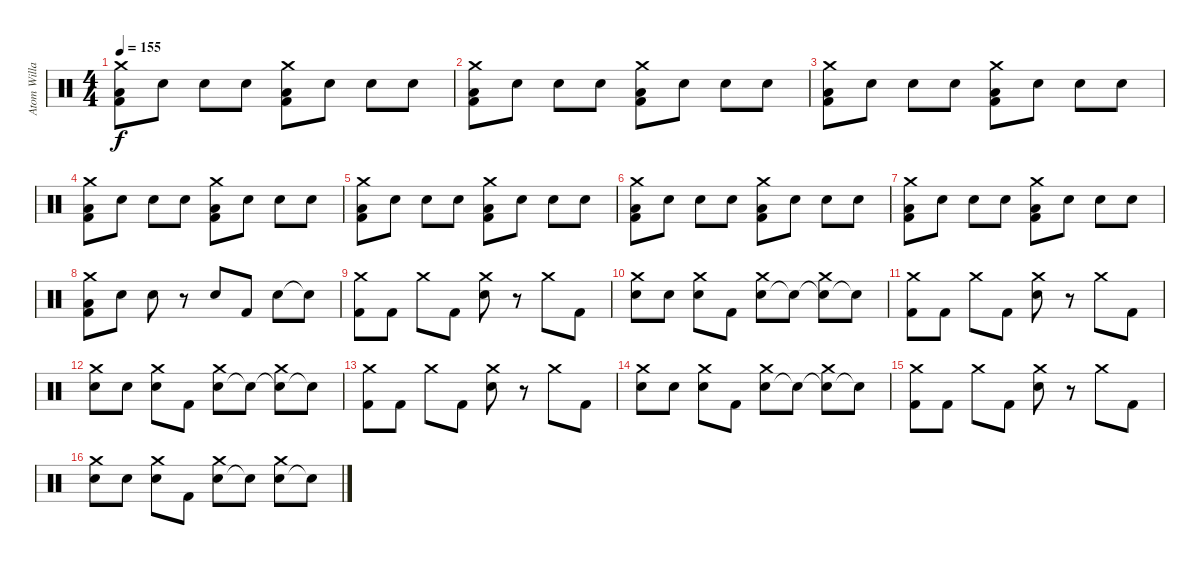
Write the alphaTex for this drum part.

\track ("Atom Willard Drums" "Atom Willa") {instrument percussion}
\staff {score}
\articulation defaults
\ts (4 4)
\tempo 155
\clef neutral
\ks c
("Crash medium (hit)" "Kick (hit) 2" "Low Tom (hit)").8{dy f} "Snare (hit)".8 "Snare (hit)".8 "Snare (hit)".8 ("Crash medium (hit)" "Kick (hit) 2" "Low Tom (hit)").8 "Snare (hit)".8 "Snare (hit)".8 "Snare (hit)".8 |
("Crash medium (hit)" "Kick (hit) 2" "Low Tom (hit)").8 "Snare (hit)".8 "Snare (hit)".8 "Snare (hit)".8 ("Crash medium (hit)" "Kick (hit) 2" "Low Tom (hit)").8 "Snare (hit)".8 "Snare (hit)".8 "Snare (hit)".8 |
("Crash medium (hit)" "Kick (hit) 2" "Low Tom (hit)").8 "Snare (hit)".8 "Snare (hit)".8 "Snare (hit)".8 ("Crash medium (hit)" "Kick (hit) 2" "Low Tom (hit)").8 "Snare (hit)".8 "Snare (hit)".8 "Snare (hit)".8 |
("Crash medium (hit)" "Kick (hit) 2" "Low Tom (hit)").8 "Snare (hit)".8 "Snare (hit)".8 "Snare (hit)".8 ("Crash medium (hit)" "Kick (hit) 2" "Low Tom (hit)").8 "Snare (hit)".8 "Snare (hit)".8 "Snare (hit)".8 |
("Crash medium (hit)" "Kick (hit) 2" "Low Tom (hit)").8 "Snare (hit)".8 "Snare (hit)".8 "Snare (hit)".8 ("Crash medium (hit)" "Kick (hit) 2" "Low Tom (hit)").8 "Snare (hit)".8 "Snare (hit)".8 "Snare (hit)".8 |
("Crash medium (hit)" "Kick (hit) 2" "Low Tom (hit)").8 "Snare (hit)".8 "Snare (hit)".8 "Snare (hit)".8 ("Crash medium (hit)" "Kick (hit) 2" "Low Tom (hit)").8 "Snare (hit)".8 "Snare (hit)".8 "Snare (hit)".8 |
("Crash medium (hit)" "Kick (hit) 2" "Low Tom (hit)").8 "Snare (hit)".8 "Snare (hit)".8 "Snare (hit)".8 ("Crash medium (hit)" "Kick (hit) 2" "Low Tom (hit)").8 "Snare (hit)".8 "Snare (hit)".8 "Snare (hit)".8 |
("Crash medium (hit)" "Kick (hit) 2" "Low Tom (hit)").8 "Snare (hit)".8 "Snare (hit)".8 r.8 "Electric Snare (hit)".8 "Kick (hit) 2".8 "Electric Snare (hit)".8 "Snare (hit)"{t}.8 |
("Kick (hit) 2" "Crash medium (hit)").8 "Kick (hit) 2".8 "Crash medium (hit)".8 "Kick (hit) 2".8 ("Electric Snare (hit)" "Crash medium (hit)").8 r.8 "Crash medium (hit)".8 "Kick (hit) 2".8 |
("Snare (hit)" "Crash medium (hit)").8 "Electric Snare (hit)".8 ("Snare (hit)" "Crash medium (hit)").8 "Kick (hit) 2".8 ("Electric Snare (hit)" "Crash medium (hit)").8 "Snare (hit)"{t}.8 ("Snare (hit)"{t} "Crash medium (hit)").8 "Snare (hit)"{t}.8 |
("Kick (hit) 2" "Crash medium (hit)").8 "Kick (hit) 2".8 "Crash medium (hit)".8 "Kick (hit) 2".8 ("Electric Snare (hit)" "Crash medium (hit)").8 r.8 "Crash medium (hit)".8 "Kick (hit) 2".8 |
("Snare (hit)" "Crash medium (hit)").8 "Electric Snare (hit)".8 ("Snare (hit)" "Crash medium (hit)").8 "Kick (hit) 2".8 ("Electric Snare (hit)" "Crash medium (hit)").8 "Snare (hit)"{t}.8 ("Snare (hit)"{t} "Crash medium (hit)").8 "Snare (hit)"{t}.8 |
("Kick (hit) 2" "Crash medium (hit)").8 "Kick (hit) 2".8 "Crash medium (hit)".8 "Kick (hit) 2".8 ("Electric Snare (hit)" "Crash medium (hit)").8 r.8 "Crash medium (hit)".8 "Kick (hit) 2".8 |
("Snare (hit)" "Crash medium (hit)").8 "Electric Snare (hit)".8 ("Snare (hit)" "Crash medium (hit)").8 "Kick (hit) 2".8 ("Electric Snare (hit)" "Crash medium (hit)").8 "Snare (hit)"{t}.8 ("Snare (hit)"{t} "Crash medium (hit)").8 "Snare (hit)"{t}.8 |
("Kick (hit) 2" "Crash medium (hit)").8 "Kick (hit) 2".8 "Crash medium (hit)".8 "Kick (hit) 2".8 ("Electric Snare (hit)" "Crash medium (hit)").8 r.8 "Crash medium (hit)".8 "Kick (hit) 2".8 |
("Snare (hit)" "Crash medium (hit)").8 "Electric Snare (hit)".8 ("Snare (hit)" "Crash medium (hit)").8 "Kick (hit) 2".8 ("Electric Snare (hit)" "Crash medium (hit)").8 "Snare (hit)"{t}.8 ("Electric Snare (hit)" "Crash medium (hit)").8 "Snare (hit)"{t}.8
